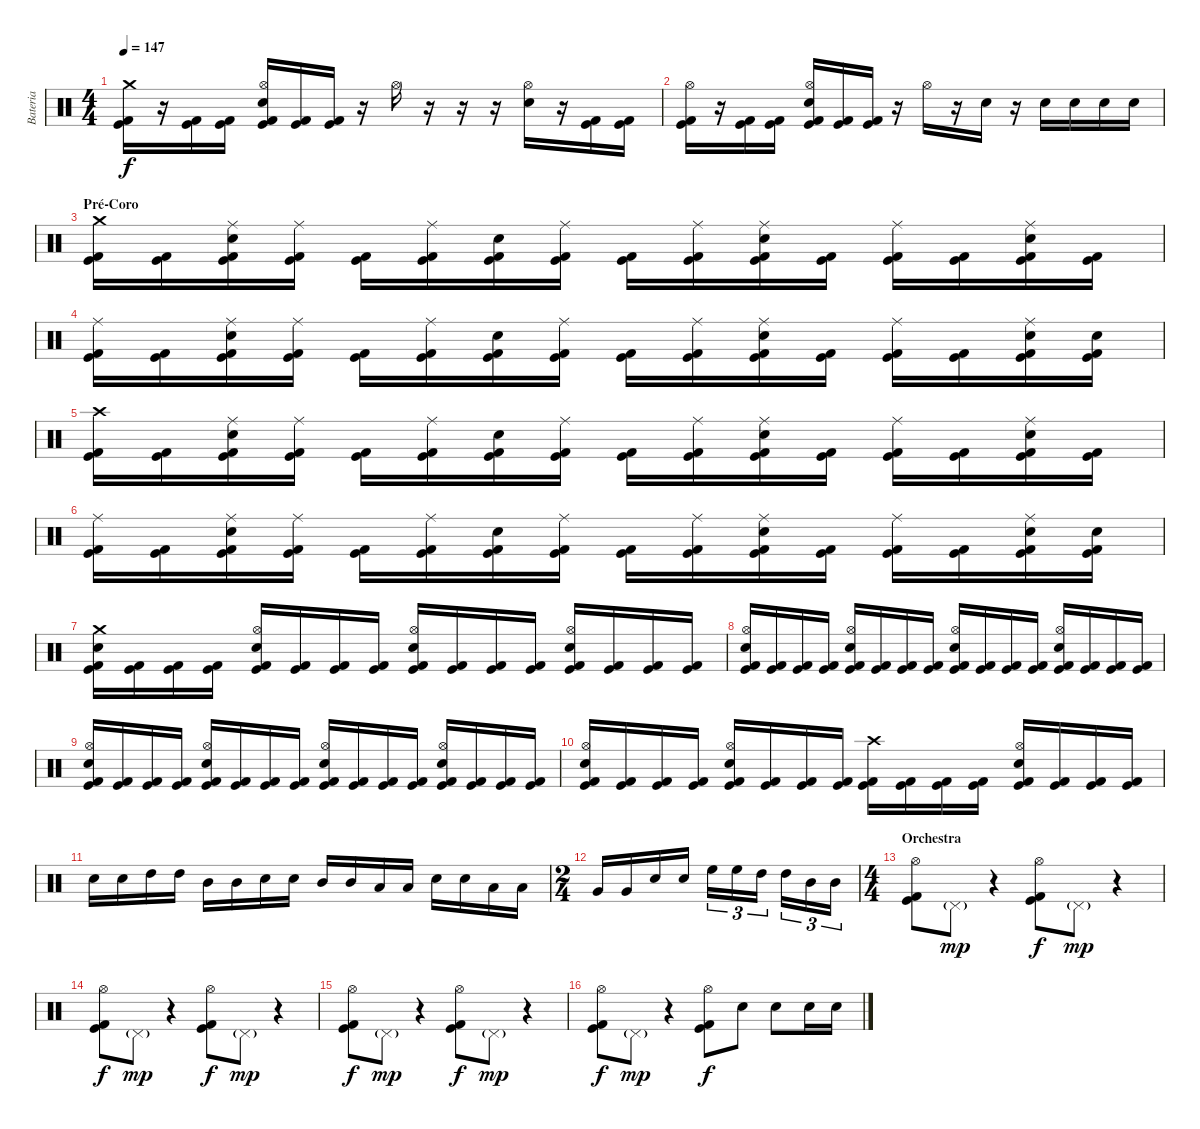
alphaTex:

\track ("Bateria" "Bateria") {instrument percussion}
\staff {score}
\articulation defaults
\ts (4 4)
\tempo 147
\clef neutral
\ks c
("Crash medium (hit)" "Kick (hit)" "Kick (hit) 2").16{dy f} r.16 ("Kick (hit)" "Kick (hit) 2").16 ("Kick (hit)" "Kick (hit) 2").16 ("Hi-Hat (open)" "Electric Snare (hit)" "Kick (hit)" "Kick (hit) 2").16 ("Kick (hit)" "Kick (hit) 2").16 ("Kick (hit)" "Kick (hit) 2").16 r.16 "Hi-Hat (open)".16 r.16 r.16 r.16 ("Hi-Hat (open)" "Electric Snare (hit)").16 r.16 ("Kick (hit)" "Kick (hit) 2").16 ("Kick (hit)" "Kick (hit) 2").16 |
("Hi-Hat (open)" "Kick (hit)" "Kick (hit) 2").16 r.16 ("Kick (hit)" "Kick (hit) 2").16 ("Kick (hit)" "Kick (hit) 2").16 ("Hi-Hat (open)" "Electric Snare (hit)" "Kick (hit)" "Kick (hit) 2").16 ("Kick (hit)" "Kick (hit) 2").16 ("Kick (hit)" "Kick (hit) 2").16 r.16 "Hi-Hat (open)".16 r.16 "Electric Snare (hit)".16 r.16 "Electric Snare (hit)".16 "Electric Snare (hit)".16 "Electric Snare (hit)".16 "Electric Snare (hit)".16 |
\section ("" "Pré-Coro")
("Crash medium (hit)" "Kick (hit)" "Kick (hit) 2").16 ("Kick (hit)" "Kick (hit) 2").16 ("Ride (middle)" "Electric Snare (hit)" "Kick (hit)" "Kick (hit) 2").16 ("Ride (middle)" "Kick (hit)" "Kick (hit) 2").16 ("Kick (hit)" "Kick (hit) 2").16 ("Ride (middle)" "Kick (hit)" "Kick (hit) 2").16 ("Electric Snare (hit)" "Kick (hit)" "Kick (hit) 2").16 ("Ride (middle)" "Kick (hit)" "Kick (hit) 2").16 ("Kick (hit)" "Kick (hit) 2").16 ("Ride (middle)" "Kick (hit)" "Kick (hit) 2").16 ("Ride (middle)" "Electric Snare (hit)" "Kick (hit)" "Kick (hit) 2").16 ("Kick (hit)" "Kick (hit) 2").16 ("Ride (middle)" "Kick (hit)" "Kick (hit) 2").16 ("Kick (hit)" "Kick (hit) 2").16 ("Ride (middle)" "Electric Snare (hit)" "Kick (hit)" "Kick (hit) 2").16 ("Kick (hit)" "Kick (hit) 2").16 |
("Ride (middle)" "Kick (hit)" "Kick (hit) 2").16 ("Kick (hit)" "Kick (hit) 2").16 ("Ride (middle)" "Electric Snare (hit)" "Kick (hit)" "Kick (hit) 2").16 ("Ride (middle)" "Kick (hit)" "Kick (hit) 2").16 ("Kick (hit)" "Kick (hit) 2").16 ("Ride (middle)" "Kick (hit)" "Kick (hit) 2").16 ("Electric Snare (hit)" "Kick (hit)" "Kick (hit) 2").16 ("Ride (middle)" "Kick (hit)" "Kick (hit) 2").16 ("Kick (hit)" "Kick (hit) 2").16 ("Ride (middle)" "Kick (hit)" "Kick (hit) 2").16 ("Ride (middle)" "Electric Snare (hit)" "Kick (hit)" "Kick (hit) 2").16 ("Kick (hit)" "Kick (hit) 2").16 ("Ride (middle)" "Kick (hit)" "Kick (hit) 2").16 ("Kick (hit)" "Kick (hit) 2").16 ("Ride (middle)" "Electric Snare (hit)" "Kick (hit)" "Kick (hit) 2").16 ("Electric Snare (hit)" "Kick (hit)" "Kick (hit) 2").16 |
("Crash high (hit)" "Kick (hit)" "Kick (hit) 2").16 ("Kick (hit)" "Kick (hit) 2").16 ("Ride (middle)" "Electric Snare (hit)" "Kick (hit)" "Kick (hit) 2").16 ("Ride (middle)" "Kick (hit)" "Kick (hit) 2").16 ("Kick (hit)" "Kick (hit) 2").16 ("Ride (middle)" "Kick (hit)" "Kick (hit) 2").16 ("Electric Snare (hit)" "Kick (hit)" "Kick (hit) 2").16 ("Ride (middle)" "Kick (hit)" "Kick (hit) 2").16 ("Kick (hit)" "Kick (hit) 2").16 ("Ride (middle)" "Kick (hit)" "Kick (hit) 2").16 ("Ride (middle)" "Electric Snare (hit)" "Kick (hit)" "Kick (hit) 2").16 ("Kick (hit)" "Kick (hit) 2").16 ("Ride (middle)" "Kick (hit)" "Kick (hit) 2").16 ("Kick (hit)" "Kick (hit) 2").16 ("Ride (middle)" "Electric Snare (hit)" "Kick (hit)" "Kick (hit) 2").16 ("Kick (hit)" "Kick (hit) 2").16 |
("Ride (middle)" "Kick (hit)" "Kick (hit) 2").16 ("Kick (hit)" "Kick (hit) 2").16 ("Ride (middle)" "Electric Snare (hit)" "Kick (hit)" "Kick (hit) 2").16 ("Ride (middle)" "Kick (hit)" "Kick (hit) 2").16 ("Kick (hit)" "Kick (hit) 2").16 ("Ride (middle)" "Kick (hit)" "Kick (hit) 2").16 ("Electric Snare (hit)" "Kick (hit)" "Kick (hit) 2").16 ("Ride (middle)" "Kick (hit)" "Kick (hit) 2").16 ("Kick (hit)" "Kick (hit) 2").16 ("Ride (middle)" "Kick (hit)" "Kick (hit) 2").16 ("Ride (middle)" "Electric Snare (hit)" "Kick (hit)" "Kick (hit) 2").16 ("Kick (hit)" "Kick (hit) 2").16 ("Ride (middle)" "Kick (hit)" "Kick (hit) 2").16 ("Kick (hit)" "Kick (hit) 2").16 ("Ride (middle)" "Electric Snare (hit)" "Kick (hit)" "Kick (hit) 2").16 ("Electric Snare (hit)" "Kick (hit)" "Kick (hit) 2").16 |
("Crash medium (hit)" "Electric Snare (hit)" "Kick (hit)" "Kick (hit) 2").16 ("Kick (hit)" "Kick (hit) 2").16 ("Kick (hit)" "Kick (hit) 2").16 ("Kick (hit)" "Kick (hit) 2").16 ("Hi-Hat (open)" "Electric Snare (hit)" "Kick (hit)" "Kick (hit) 2").16 ("Kick (hit)" "Kick (hit) 2").16 ("Kick (hit)" "Kick (hit) 2").16 ("Kick (hit)" "Kick (hit) 2").16 ("Hi-Hat (open)" "Electric Snare (hit)" "Kick (hit)" "Kick (hit) 2").16 ("Kick (hit)" "Kick (hit) 2").16 ("Kick (hit)" "Kick (hit) 2").16 ("Kick (hit)" "Kick (hit) 2").16 ("Hi-Hat (open)" "Electric Snare (hit)" "Kick (hit)" "Kick (hit) 2").16 ("Kick (hit)" "Kick (hit) 2").16 ("Kick (hit)" "Kick (hit) 2").16 ("Kick (hit)" "Kick (hit) 2").16 |
("Hi-Hat (open)" "Electric Snare (hit)" "Kick (hit)" "Kick (hit) 2").16 ("Kick (hit)" "Kick (hit) 2").16 ("Kick (hit)" "Kick (hit) 2").16 ("Kick (hit)" "Kick (hit) 2").16 ("Hi-Hat (open)" "Electric Snare (hit)" "Kick (hit)" "Kick (hit) 2").16 ("Kick (hit)" "Kick (hit) 2").16 ("Kick (hit)" "Kick (hit) 2").16 ("Kick (hit)" "Kick (hit) 2").16 ("Hi-Hat (open)" "Electric Snare (hit)" "Kick (hit)" "Kick (hit) 2").16 ("Kick (hit)" "Kick (hit) 2").16 ("Kick (hit)" "Kick (hit) 2").16 ("Kick (hit)" "Kick (hit) 2").16 ("Hi-Hat (open)" "Electric Snare (hit)" "Kick (hit)" "Kick (hit) 2").16 ("Kick (hit)" "Kick (hit) 2").16 ("Kick (hit)" "Kick (hit) 2").16 ("Kick (hit)" "Kick (hit) 2").16 |
("Hi-Hat (open)" "Electric Snare (hit)" "Kick (hit)" "Kick (hit) 2").16 ("Kick (hit)" "Kick (hit) 2").16 ("Kick (hit)" "Kick (hit) 2").16 ("Kick (hit)" "Kick (hit) 2").16 ("Hi-Hat (open)" "Electric Snare (hit)" "Kick (hit)" "Kick (hit) 2").16 ("Kick (hit)" "Kick (hit) 2").16 ("Kick (hit)" "Kick (hit) 2").16 ("Kick (hit)" "Kick (hit) 2").16 ("Hi-Hat (open)" "Electric Snare (hit)" "Kick (hit)" "Kick (hit) 2").16 ("Kick (hit)" "Kick (hit) 2").16 ("Kick (hit)" "Kick (hit) 2").16 ("Kick (hit)" "Kick (hit) 2").16 ("Hi-Hat (open)" "Electric Snare (hit)" "Kick (hit)" "Kick (hit) 2").16 ("Kick (hit)" "Kick (hit) 2").16 ("Kick (hit)" "Kick (hit) 2").16 ("Kick (hit)" "Kick (hit) 2").16 |
("Hi-Hat (open)" "Electric Snare (hit)" "Kick (hit)" "Kick (hit) 2").16 ("Kick (hit)" "Kick (hit) 2").16 ("Kick (hit)" "Kick (hit) 2").16 ("Kick (hit)" "Kick (hit) 2").16 ("Hi-Hat (open)" "Electric Snare (hit)" "Kick (hit)" "Kick (hit) 2").16 ("Kick (hit)" "Kick (hit) 2").16 ("Kick (hit)" "Kick (hit) 2").16 ("Kick (hit)" "Kick (hit) 2").16 ("Crash high (hit)" "Kick (hit)" "Kick (hit) 2").16 ("Kick (hit)" "Kick (hit) 2").16 ("Kick (hit)" "Kick (hit) 2").16 ("Kick (hit)" "Kick (hit) 2").16 ("Hi-Hat (open)" "Electric Snare (hit)" "Kick (hit)" "Kick (hit) 2").16 ("Kick (hit)" "Kick (hit) 2").16 ("Kick (hit)" "Kick (hit) 2").16 ("Kick (hit)" "Kick (hit) 2").16 |
"Electric Snare (hit)".16 "Electric Snare (hit)".16 "High Tom (hit)".16 "High Tom (hit)".16 "Mid Tom (hit)".16 "Mid Tom (hit)".16 "Electric Snare (hit)".16 "Electric Snare (hit)".16 "Mid Tom (hit)".16 "Mid Tom (hit)".16 "Low Tom (hit)".16 "Low Tom (hit)".16 "Electric Snare (hit)".16 "Electric Snare (hit)".16 "Low Tom (hit)".16 "Low Tom (hit)".16 |
\ts (2 4)
"Very Low Tom (hit)".16 "Very Low Tom (hit)".16 "Electric Snare (hit)".16 "Electric Snare (hit)".16 "High Floor Tom (hit)".16{tu (3 2)} "High Floor Tom (hit)".16{tu (3 2)} "High Tom (hit)".16{tu (3 2)} "High Tom (hit)".16{tu (3 2)} "Mid Tom (hit)".16{tu (3 2)} "Mid Tom (hit)".16{tu (3 2)} |
\ts (4 4)
\section ("" "Orchestra")
("Hi-Hat (open)" "Kick (hit)" "Kick (hit) 2").8 "Pedal Hi-Hat (hit)"{g}.8{dy mp} r.4 ("Hi-Hat (open)" "Kick (hit)" "Kick (hit) 2").8{dy f} "Pedal Hi-Hat (hit)"{g}.8{dy mp} r.4 |
("Hi-Hat (open)" "Kick (hit)" "Kick (hit) 2").8{dy f} "Pedal Hi-Hat (hit)"{g}.8{dy mp} r.4 ("Hi-Hat (open)" "Kick (hit)" "Kick (hit) 2").8{dy f} "Pedal Hi-Hat (hit)"{g}.8{dy mp} r.4 |
("Hi-Hat (open)" "Kick (hit)" "Kick (hit) 2").8{dy f} "Pedal Hi-Hat (hit)"{g}.8{dy mp} r.4 ("Hi-Hat (open)" "Kick (hit)" "Kick (hit) 2").8{dy f} "Pedal Hi-Hat (hit)"{g}.8{dy mp} r.4 |
("Hi-Hat (open)" "Kick (hit)" "Kick (hit) 2").8{dy f} "Pedal Hi-Hat (hit)"{g}.8{dy mp} r.4 ("Hi-Hat (open)" "Kick (hit)" "Kick (hit) 2").8{dy f} "Electric Snare (hit)".8 "Electric Snare (hit)".8 "Electric Snare (hit)".16 "Electric Snare (hit)".16
